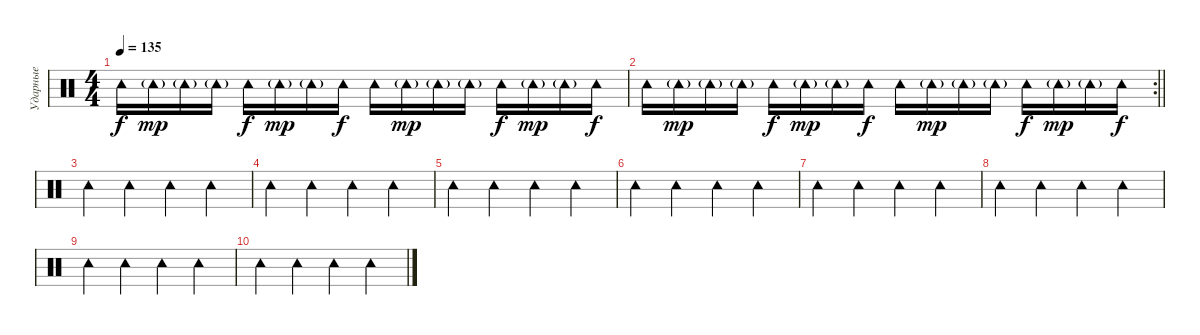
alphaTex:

\track ("Ударные" "Ударные") {instrument percussion}
\staff {score}
\articulation defaults
\ts (4 4)
\tempo 135
\clef neutral
\ks c "Tambourine (hit)".16{dy f} "Tambourine (hit)"{g}.16{dy mp} "Tambourine (hit)"{g}.16 "Tambourine (hit)"{g}.16 "Tambourine (hit)".16{dy f} "Tambourine (hit)"{g}.16{dy mp} "Tambourine (hit)"{g}.16 "Tambourine (hit)".16{dy f} "Tambourine (hit)".16 "Tambourine (hit)"{g}.16{dy mp} "Tambourine (hit)"{g}.16 "Tambourine (hit)"{g}.16 "Tambourine (hit)".16{dy f} "Tambourine (hit)"{g}.16{dy mp} "Tambourine (hit)"{g}.16 "Tambourine (hit)".16{dy f}
|
\rc 2
\barLineRight lightlight "Tambourine (hit)".16 "Tambourine (hit)"{g}.16{dy mp} "Tambourine (hit)"{g}.16 "Tambourine (hit)"{g}.16 "Tambourine (hit)".16{dy f} "Tambourine (hit)"{g}.16{dy mp} "Tambourine (hit)"{g}.16 "Tambourine (hit)".16{dy f} "Tambourine (hit)".16 "Tambourine (hit)"{g}.16{dy mp} "Tambourine (hit)"{g}.16 "Tambourine (hit)"{g}.16 "Tambourine (hit)".16{dy f} "Tambourine (hit)"{g}.16{dy mp} "Tambourine (hit)"{g}.16 "Tambourine (hit)".16{dy f}
|
"Tambourine (hit)".4 "Tambourine (hit)".4 "Tambourine (hit)".4 "Tambourine (hit)".4 |
"Tambourine (hit)".4 "Tambourine (hit)".4 "Tambourine (hit)".4 "Tambourine (hit)".4 |
"Tambourine (hit)".4 "Tambourine (hit)".4 "Tambourine (hit)".4 "Tambourine (hit)".4 |
"Tambourine (hit)".4 "Tambourine (hit)".4 "Tambourine (hit)".4 "Tambourine (hit)".4 |
"Tambourine (hit)".4 "Tambourine (hit)".4 "Tambourine (hit)".4 "Tambourine (hit)".4 |
"Tambourine (hit)".4 "Tambourine (hit)".4 "Tambourine (hit)".4 "Tambourine (hit)".4 |
"Tambourine (hit)".4 "Tambourine (hit)".4 "Tambourine (hit)".4 "Tambourine (hit)".4 |
"Tambourine (hit)".4 "Tambourine (hit)".4 "Tambourine (hit)".4 "Tambourine (hit)".4
